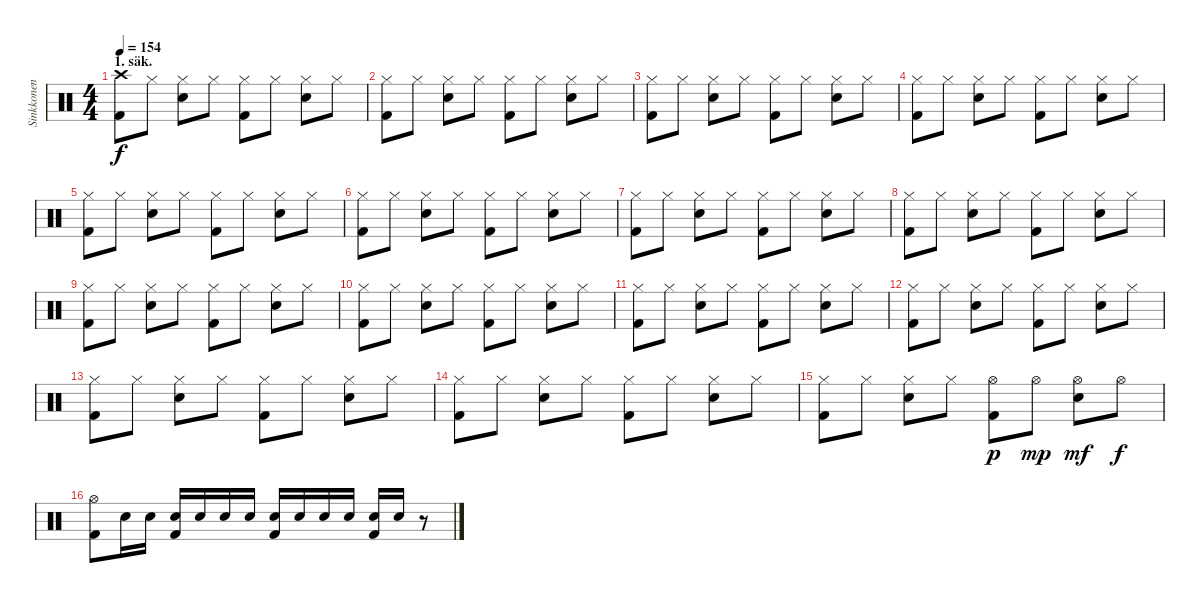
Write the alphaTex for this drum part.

\track ("Sinkkonen" "Sinkkonen") {instrument percussion}
\staff {score}
\articulation defaults
\ts (4 4)
\section ("" "1. säk.")
\tempo 154
\clef neutral
\ks c
("Kick (hit) 2" "Crash high (hit)").8{dy f} "Hi-Hat (closed)".8 ("Hi-Hat (closed)" "Snare (hit) 2").8 "Hi-Hat (closed)".8 ("Kick (hit) 2" "Hi-Hat (closed)").8 "Hi-Hat (closed)".8 ("Hi-Hat (closed)" "Snare (hit) 2").8 "Hi-Hat (closed)".8 |
("Kick (hit) 2" "Hi-Hat (closed)").8 "Hi-Hat (closed)".8 ("Hi-Hat (closed)" "Snare (hit) 2").8 "Hi-Hat (closed)".8 ("Kick (hit) 2" "Hi-Hat (closed)").8 "Hi-Hat (closed)".8 ("Hi-Hat (closed)" "Snare (hit) 2").8 "Hi-Hat (closed)".8 |
("Kick (hit) 2" "Hi-Hat (closed)").8 "Hi-Hat (closed)".8 ("Hi-Hat (closed)" "Snare (hit) 2").8 "Hi-Hat (closed)".8 ("Kick (hit) 2" "Hi-Hat (closed)").8 "Hi-Hat (closed)".8 ("Hi-Hat (closed)" "Snare (hit) 2").8 "Hi-Hat (closed)".8 |
("Kick (hit) 2" "Hi-Hat (closed)").8 "Hi-Hat (closed)".8 ("Hi-Hat (closed)" "Snare (hit) 2").8 "Hi-Hat (closed)".8 ("Kick (hit) 2" "Hi-Hat (closed)").8 "Hi-Hat (closed)".8 ("Hi-Hat (closed)" "Snare (hit) 2").8 "Hi-Hat (closed)".8 |
("Kick (hit) 2" "Hi-Hat (closed)").8 "Hi-Hat (closed)".8 ("Hi-Hat (closed)" "Snare (hit) 2").8 "Hi-Hat (closed)".8 ("Kick (hit) 2" "Hi-Hat (closed)").8 "Hi-Hat (closed)".8 ("Hi-Hat (closed)" "Snare (hit) 2").8 "Hi-Hat (closed)".8 |
("Kick (hit) 2" "Hi-Hat (closed)").8 "Hi-Hat (closed)".8 ("Hi-Hat (closed)" "Snare (hit) 2").8 "Hi-Hat (closed)".8 ("Kick (hit) 2" "Hi-Hat (closed)").8 "Hi-Hat (closed)".8 ("Hi-Hat (closed)" "Snare (hit) 2").8 "Hi-Hat (closed)".8 |
("Kick (hit) 2" "Hi-Hat (closed)").8 "Hi-Hat (closed)".8 ("Hi-Hat (closed)" "Snare (hit) 2").8 "Hi-Hat (closed)".8 ("Kick (hit) 2" "Hi-Hat (closed)").8 "Hi-Hat (closed)".8 ("Hi-Hat (closed)" "Snare (hit) 2").8 "Hi-Hat (closed)".8 |
("Kick (hit) 2" "Hi-Hat (closed)").8 "Hi-Hat (closed)".8 ("Hi-Hat (closed)" "Snare (hit) 2").8 "Hi-Hat (closed)".8 ("Kick (hit) 2" "Hi-Hat (closed)").8 "Hi-Hat (closed)".8 ("Hi-Hat (closed)" "Snare (hit) 2").8 "Hi-Hat (closed)".8 |
("Kick (hit) 2" "Hi-Hat (closed)").8 "Hi-Hat (closed)".8 ("Hi-Hat (closed)" "Snare (hit) 2").8 "Hi-Hat (closed)".8 ("Kick (hit) 2" "Hi-Hat (closed)").8 "Hi-Hat (closed)".8 ("Hi-Hat (closed)" "Snare (hit) 2").8 "Hi-Hat (closed)".8 |
("Kick (hit) 2" "Hi-Hat (closed)").8 "Hi-Hat (closed)".8 ("Hi-Hat (closed)" "Snare (hit) 2").8 "Hi-Hat (closed)".8 ("Kick (hit) 2" "Hi-Hat (closed)").8 "Hi-Hat (closed)".8 ("Hi-Hat (closed)" "Snare (hit) 2").8 "Hi-Hat (closed)".8 |
("Kick (hit) 2" "Hi-Hat (closed)").8 "Hi-Hat (closed)".8 ("Hi-Hat (closed)" "Snare (hit) 2").8 "Hi-Hat (closed)".8 ("Kick (hit) 2" "Hi-Hat (closed)").8 "Hi-Hat (closed)".8 ("Hi-Hat (closed)" "Snare (hit) 2").8 "Hi-Hat (closed)".8 |
("Kick (hit) 2" "Hi-Hat (closed)").8 "Hi-Hat (closed)".8 ("Hi-Hat (closed)" "Snare (hit) 2").8 "Hi-Hat (closed)".8 ("Kick (hit) 2" "Hi-Hat (closed)").8 "Hi-Hat (closed)".8 ("Hi-Hat (closed)" "Snare (hit) 2").8 "Hi-Hat (closed)".8 |
("Kick (hit) 2" "Hi-Hat (closed)").8 "Hi-Hat (closed)".8 ("Hi-Hat (closed)" "Snare (hit) 2").8 "Hi-Hat (closed)".8 ("Kick (hit) 2" "Hi-Hat (closed)").8 "Hi-Hat (closed)".8 ("Hi-Hat (closed)" "Snare (hit) 2").8 "Hi-Hat (closed)".8 |
("Kick (hit) 2" "Hi-Hat (closed)").8 "Hi-Hat (closed)".8 ("Hi-Hat (closed)" "Snare (hit) 2").8 "Hi-Hat (closed)".8 ("Kick (hit) 2" "Hi-Hat (closed)").8 "Hi-Hat (closed)".8 ("Hi-Hat (closed)" "Snare (hit) 2").8 "Hi-Hat (closed)".8 |
("Kick (hit) 2" "Hi-Hat (closed)").8 "Hi-Hat (closed)".8 ("Hi-Hat (closed)" "Snare (hit) 2").8 "Hi-Hat (closed)".8 ("Kick (hit) 2" "Hi-Hat (open)").8{dy p} "Hi-Hat (open)".8{dy mp} ("Hi-Hat (open)" "Snare (hit) 2").8{dy mf} "Hi-Hat (open)".8{dy f} |
("Kick (hit) 2" "Hi-Hat (open)").8 "Snare (hit) 2".16 "Snare (hit) 2".16 ("Kick (hit) 2" "Snare (hit) 2").16 "Snare (hit) 2".16 "Snare (hit) 2".16 "Snare (hit) 2".16 ("Kick (hit) 2" "Snare (hit) 2").16 "Snare (hit) 2".16 "Snare (hit) 2".16 "Snare (hit) 2".16 ("Kick (hit) 2" "Snare (hit) 2").16 "Snare (hit) 2".16 r.8
